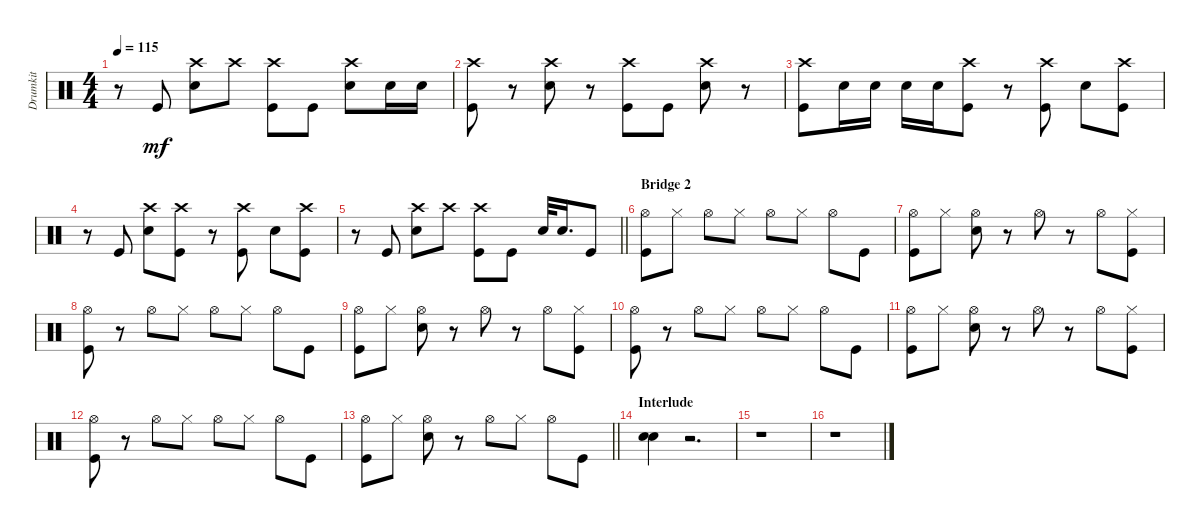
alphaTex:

\track ("Drumkit" "Drumkit") {instrument percussion}
\staff {score}
\articulation defaults
\ts (4 4)
\tempo 115
\clef neutral
\ks c
r.8{dy mf} "Kick (hit)".8 ("Snare (hit) 2" "Crash high (hit)").8 "Crash high (hit)".8 ("Kick (hit)" "Crash high (hit)").8 "Kick (hit)".8 ("Snare (hit) 2" "Crash high (hit)").8 "Snare (hit) 2".16 "Snare (hit) 2".16 |
("Kick (hit)" "Crash high (hit)").8 r.8 ("Snare (hit) 2" "Crash high (hit)").8 r.8 ("Kick (hit)" "Crash high (hit)").8 "Kick (hit)".8 ("Snare (hit) 2" "Crash high (hit)").8 r.8 |
("Kick (hit)" "Crash high (hit)").8 "Snare (hit) 2".16 "Snare (hit) 2".16 "Snare (hit) 2".16 "Snare (hit) 2".16 ("Kick (hit)" "Crash high (hit)").8 r.8 ("Kick (hit)" "Crash high (hit)").8 "Snare (hit) 2".8 ("Kick (hit)" "Crash high (hit)").8 |
r.8 "Kick (hit)".8 ("Snare (hit) 2" "Crash high (hit)").8 ("Kick (hit)" "Crash high (hit)").8 r.8 ("Kick (hit)" "Crash high (hit)").8 "Snare (hit) 2".8 ("Kick (hit)" "Crash high (hit)").8 |
\barLineRight lightlight
r.8 "Kick (hit)".8 ("Snare (hit) 2" "Crash high (hit)").8 "Crash high (hit)".8 ("Kick (hit)" "Crash high (hit)").8 "Kick (hit)".8 "Snare (hit) 2".32 "Snare (hit) 2".16{d} "Kick (hit)".8 |
\section ("" "Bridge 2")
("Hi-Hat (open)" "Kick (hit)").8 "Hi-Hat (closed)".8 "Hi-Hat (open)".8 "Hi-Hat (closed)".8 "Hi-Hat (open)".8 "Hi-Hat (closed)".8 "Hi-Hat (open)".8 "Kick (hit)".8 |
("Hi-Hat (open)" "Kick (hit)").8 "Hi-Hat (closed)".8 ("Hi-Hat (open)" "Snare (hit) 2").8 r.8 "Hi-Hat (open)".8 r.8 "Hi-Hat (open)".8 ("Kick (hit)" "Hi-Hat (closed)").8 |
("Hi-Hat (open)" "Kick (hit)").8 r.8 "Hi-Hat (open)".8 "Hi-Hat (closed)".8 "Hi-Hat (open)".8 "Hi-Hat (closed)".8 "Hi-Hat (open)".8 "Kick (hit)".8 |
("Hi-Hat (open)" "Kick (hit)").8 "Hi-Hat (closed)".8 ("Hi-Hat (open)" "Snare (hit) 2").8 r.8 "Hi-Hat (open)".8 r.8 "Hi-Hat (open)".8 ("Kick (hit)" "Hi-Hat (closed)").8 |
("Hi-Hat (open)" "Kick (hit)").8 r.8 "Hi-Hat (open)".8 "Hi-Hat (closed)".8 "Hi-Hat (open)".8 "Hi-Hat (closed)".8 "Hi-Hat (open)".8 "Kick (hit)".8 |
("Hi-Hat (open)" "Kick (hit)").8 "Hi-Hat (closed)".8 ("Hi-Hat (open)" "Snare (hit) 2").8 r.8 "Hi-Hat (open)".8 r.8 "Hi-Hat (open)".8 ("Kick (hit)" "Hi-Hat (closed)").8 |
("Hi-Hat (open)" "Kick (hit)").8 r.8 "Hi-Hat (open)".8 "Hi-Hat (closed)".8 "Hi-Hat (open)".8 "Hi-Hat (closed)".8 "Hi-Hat (open)".8 "Kick (hit)".8 |
\barLineRight lightlight
("Hi-Hat (open)" "Kick (hit)").8 "Hi-Hat (closed)".8 ("Hi-Hat (open)" "Snare (hit) 2").8 r.8 "Hi-Hat (open)".8 "Hi-Hat (closed)".8 "Hi-Hat (open)".8 "Kick (hit)".8 |
\section ("" "Interlude")
("Snare (hit) 2" "Snare (hit) 2").4 r.2{d} |
r.1 |
r.1
